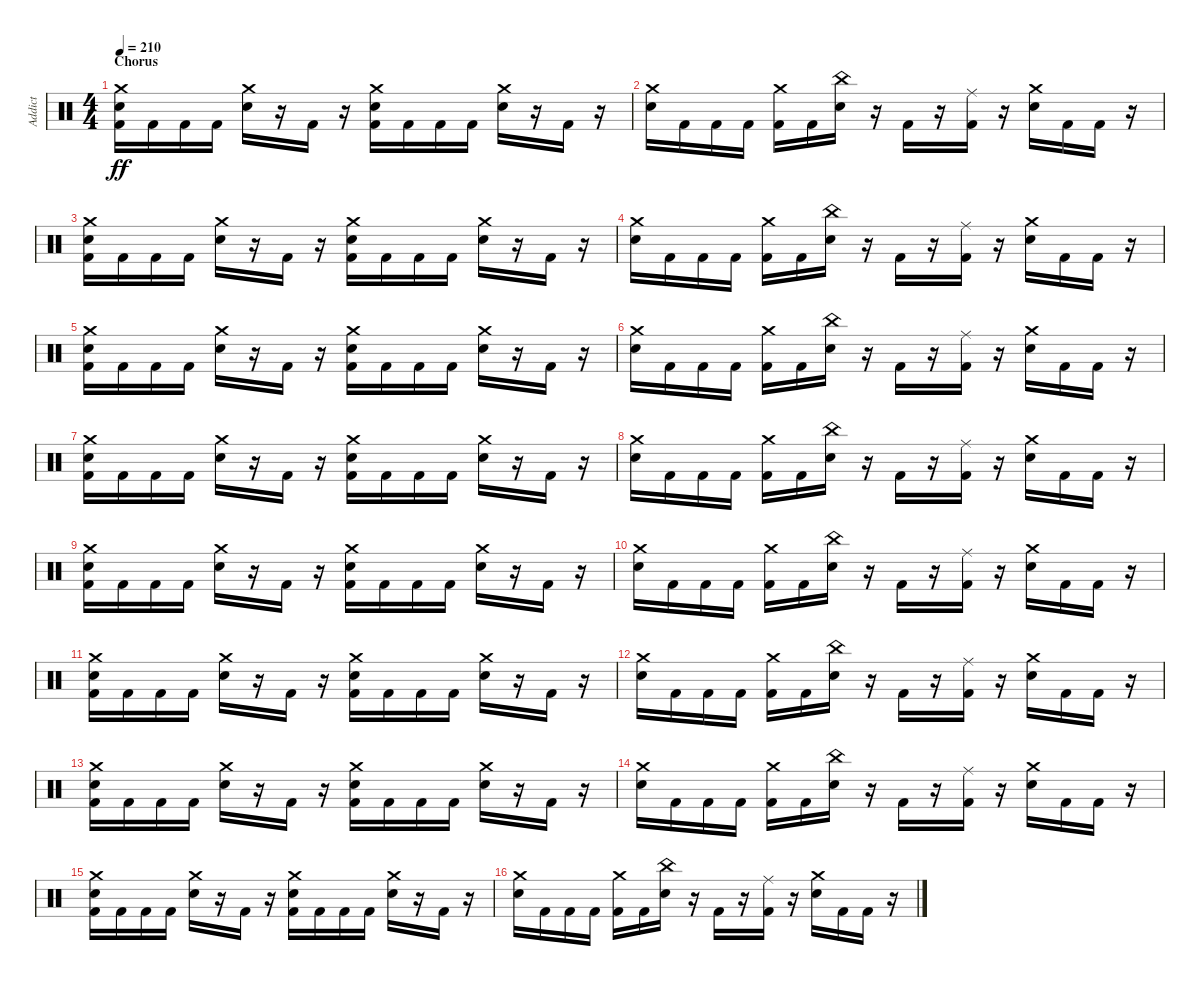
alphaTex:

\track ("Addict" "Addict") {instrument percussion}
\staff {score}
\articulation defaults
\ts (4 4)
\section ("" "Chorus")
\tempo 210
\clef neutral
\ks c
("Kick (hit) 2" "Snare (hit) 2" "Crash medium (hit)").16{dy ff} "Kick (hit) 2".16 "Kick (hit) 2".16 "Kick (hit) 2".16 ("Snare (hit) 2" "Crash medium (hit)").16 r.16 "Kick (hit) 2".16 r.16 ("Kick (hit) 2" "Snare (hit) 2" "Crash medium (hit)").16 "Kick (hit) 2".16 "Kick (hit) 2".16 "Kick (hit) 2".16 ("Snare (hit) 2" "Crash medium (hit)").16 r.16 "Kick (hit) 2".16 r.16 |
("Snare (hit) 2" "Crash medium (hit)").16 "Kick (hit) 2".16 "Kick (hit) 2".16 "Kick (hit) 2".16 ("Kick (hit) 2" "Crash medium (hit)").16 "Kick (hit) 2".16 ("Snare (hit) 2" "China (hit)").16 r.16 "Kick (hit) 2".16 r.16 ("Kick (hit) 2" "Ride (middle)").16 r.16 ("Snare (hit) 2" "Crash medium (hit)").16 "Kick (hit) 2".16 "Kick (hit) 2".16 r.16 |
("Kick (hit) 2" "Snare (hit) 2" "Crash medium (hit)").16 "Kick (hit) 2".16 "Kick (hit) 2".16 "Kick (hit) 2".16 ("Snare (hit) 2" "Crash medium (hit)").16 r.16 "Kick (hit) 2".16 r.16 ("Kick (hit) 2" "Snare (hit) 2" "Crash medium (hit)").16 "Kick (hit) 2".16 "Kick (hit) 2".16 "Kick (hit) 2".16 ("Snare (hit) 2" "Crash medium (hit)").16 r.16 "Kick (hit) 2".16 r.16 |
("Snare (hit) 2" "Crash medium (hit)").16 "Kick (hit) 2".16 "Kick (hit) 2".16 "Kick (hit) 2".16 ("Kick (hit) 2" "Crash medium (hit)").16 "Kick (hit) 2".16 ("Snare (hit) 2" "China (hit)").16 r.16 "Kick (hit) 2".16 r.16 ("Kick (hit) 2" "Ride (middle)").16 r.16 ("Snare (hit) 2" "Crash medium (hit)").16 "Kick (hit) 2".16 "Kick (hit) 2".16 r.16 |
("Kick (hit) 2" "Snare (hit) 2" "Crash medium (hit)").16 "Kick (hit) 2".16 "Kick (hit) 2".16 "Kick (hit) 2".16 ("Snare (hit) 2" "Crash medium (hit)").16 r.16 "Kick (hit) 2".16 r.16 ("Kick (hit) 2" "Snare (hit) 2" "Crash medium (hit)").16 "Kick (hit) 2".16 "Kick (hit) 2".16 "Kick (hit) 2".16 ("Snare (hit) 2" "Crash medium (hit)").16 r.16 "Kick (hit) 2".16 r.16 |
("Snare (hit) 2" "Crash medium (hit)").16 "Kick (hit) 2".16 "Kick (hit) 2".16 "Kick (hit) 2".16 ("Kick (hit) 2" "Crash medium (hit)").16 "Kick (hit) 2".16 ("Snare (hit) 2" "China (hit)").16 r.16 "Kick (hit) 2".16 r.16 ("Kick (hit) 2" "Ride (middle)").16 r.16 ("Snare (hit) 2" "Crash medium (hit)").16 "Kick (hit) 2".16 "Kick (hit) 2".16 r.16 |
("Kick (hit) 2" "Snare (hit) 2" "Crash medium (hit)").16 "Kick (hit) 2".16 "Kick (hit) 2".16 "Kick (hit) 2".16 ("Snare (hit) 2" "Crash medium (hit)").16 r.16 "Kick (hit) 2".16 r.16 ("Kick (hit) 2" "Snare (hit) 2" "Crash medium (hit)").16 "Kick (hit) 2".16 "Kick (hit) 2".16 "Kick (hit) 2".16 ("Snare (hit) 2" "Crash medium (hit)").16 r.16 "Kick (hit) 2".16 r.16 |
("Snare (hit) 2" "Crash medium (hit)").16 "Kick (hit) 2".16 "Kick (hit) 2".16 "Kick (hit) 2".16 ("Kick (hit) 2" "Crash medium (hit)").16 "Kick (hit) 2".16 ("Snare (hit) 2" "China (hit)").16 r.16 "Kick (hit) 2".16 r.16 ("Kick (hit) 2" "Ride (middle)").16 r.16 ("Snare (hit) 2" "Crash medium (hit)").16 "Kick (hit) 2".16 "Kick (hit) 2".16 r.16 |
("Kick (hit) 2" "Snare (hit) 2" "Crash medium (hit)").16 "Kick (hit) 2".16 "Kick (hit) 2".16 "Kick (hit) 2".16 ("Snare (hit) 2" "Crash medium (hit)").16 r.16 "Kick (hit) 2".16 r.16 ("Kick (hit) 2" "Snare (hit) 2" "Crash medium (hit)").16 "Kick (hit) 2".16 "Kick (hit) 2".16 "Kick (hit) 2".16 ("Snare (hit) 2" "Crash medium (hit)").16 r.16 "Kick (hit) 2".16 r.16 |
("Snare (hit) 2" "Crash medium (hit)").16 "Kick (hit) 2".16 "Kick (hit) 2".16 "Kick (hit) 2".16 ("Kick (hit) 2" "Crash medium (hit)").16 "Kick (hit) 2".16 ("Snare (hit) 2" "China (hit)").16 r.16 "Kick (hit) 2".16 r.16 ("Kick (hit) 2" "Ride (middle)").16 r.16 ("Snare (hit) 2" "Crash medium (hit)").16 "Kick (hit) 2".16 "Kick (hit) 2".16 r.16 |
("Kick (hit) 2" "Snare (hit) 2" "Crash medium (hit)").16 "Kick (hit) 2".16 "Kick (hit) 2".16 "Kick (hit) 2".16 ("Snare (hit) 2" "Crash medium (hit)").16 r.16 "Kick (hit) 2".16 r.16 ("Kick (hit) 2" "Snare (hit) 2" "Crash medium (hit)").16 "Kick (hit) 2".16 "Kick (hit) 2".16 "Kick (hit) 2".16 ("Snare (hit) 2" "Crash medium (hit)").16 r.16 "Kick (hit) 2".16 r.16 |
("Snare (hit) 2" "Crash medium (hit)").16 "Kick (hit) 2".16 "Kick (hit) 2".16 "Kick (hit) 2".16 ("Kick (hit) 2" "Crash medium (hit)").16 "Kick (hit) 2".16 ("Snare (hit) 2" "China (hit)").16 r.16 "Kick (hit) 2".16 r.16 ("Kick (hit) 2" "Ride (middle)").16 r.16 ("Snare (hit) 2" "Crash medium (hit)").16 "Kick (hit) 2".16 "Kick (hit) 2".16 r.16 |
("Kick (hit) 2" "Snare (hit) 2" "Crash medium (hit)").16 "Kick (hit) 2".16 "Kick (hit) 2".16 "Kick (hit) 2".16 ("Snare (hit) 2" "Crash medium (hit)").16 r.16 "Kick (hit) 2".16 r.16 ("Kick (hit) 2" "Snare (hit) 2" "Crash medium (hit)").16 "Kick (hit) 2".16 "Kick (hit) 2".16 "Kick (hit) 2".16 ("Snare (hit) 2" "Crash medium (hit)").16 r.16 "Kick (hit) 2".16 r.16 |
("Snare (hit) 2" "Crash medium (hit)").16 "Kick (hit) 2".16 "Kick (hit) 2".16 "Kick (hit) 2".16 ("Kick (hit) 2" "Crash medium (hit)").16 "Kick (hit) 2".16 ("Snare (hit) 2" "China (hit)").16 r.16 "Kick (hit) 2".16 r.16 ("Kick (hit) 2" "Ride (middle)").16 r.16 ("Snare (hit) 2" "Crash medium (hit)").16 "Kick (hit) 2".16 "Kick (hit) 2".16 r.16 |
("Kick (hit) 2" "Snare (hit) 2" "Crash medium (hit)").16 "Kick (hit) 2".16 "Kick (hit) 2".16 "Kick (hit) 2".16 ("Snare (hit) 2" "Crash medium (hit)").16 r.16 "Kick (hit) 2".16 r.16 ("Kick (hit) 2" "Snare (hit) 2" "Crash medium (hit)").16 "Kick (hit) 2".16 "Kick (hit) 2".16 "Kick (hit) 2".16 ("Snare (hit) 2" "Crash medium (hit)").16 r.16 "Kick (hit) 2".16 r.16 |
("Snare (hit) 2" "Crash medium (hit)").16 "Kick (hit) 2".16 "Kick (hit) 2".16 "Kick (hit) 2".16 ("Kick (hit) 2" "Crash medium (hit)").16 "Kick (hit) 2".16 ("Snare (hit) 2" "China (hit)").16 r.16 "Kick (hit) 2".16 r.16 ("Kick (hit) 2" "Ride (middle)").16 r.16 ("Snare (hit) 2" "Crash medium (hit)").16 "Kick (hit) 2".16 "Kick (hit) 2".16 r.16
